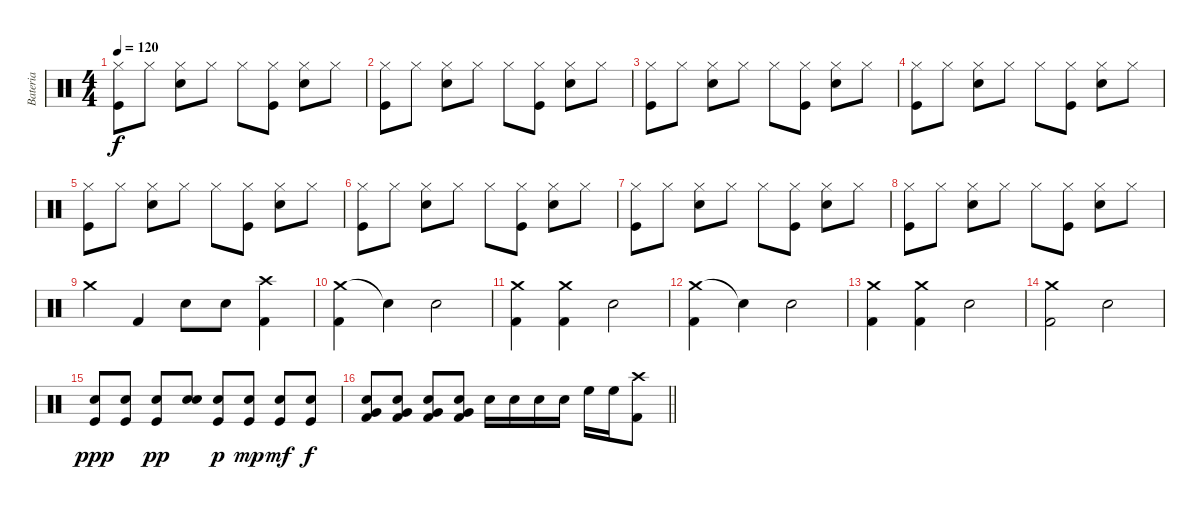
\track ("Bateria" "Bateria") {instrument percussion}
\staff {score}
\articulation defaults
\ts (4 4)
\tempo 120
\clef neutral
\ks c
("Hi-Hat (closed)" "Kick (hit)").8{dy f} "Hi-Hat (closed)".8 ("Hi-Hat (closed)" "Snare (hit) 2").8 "Hi-Hat (closed)".8 "Hi-Hat (closed)".8 ("Hi-Hat (closed)" "Kick (hit)").8 ("Hi-Hat (closed)" "Snare (hit) 2").8 "Hi-Hat (closed)".8 |
("Hi-Hat (closed)" "Kick (hit)").8 "Hi-Hat (closed)".8 ("Hi-Hat (closed)" "Snare (hit) 2").8 "Hi-Hat (closed)".8 "Hi-Hat (closed)".8 ("Hi-Hat (closed)" "Kick (hit)").8 ("Hi-Hat (closed)" "Snare (hit) 2").8 "Hi-Hat (closed)".8 |
("Hi-Hat (closed)" "Kick (hit)").8 "Hi-Hat (closed)".8 ("Hi-Hat (closed)" "Snare (hit) 2").8 "Hi-Hat (closed)".8 "Hi-Hat (closed)".8 ("Hi-Hat (closed)" "Kick (hit)").8 ("Hi-Hat (closed)" "Snare (hit) 2").8 "Hi-Hat (closed)".8 |
("Hi-Hat (closed)" "Kick (hit)").8 "Hi-Hat (closed)".8 ("Hi-Hat (closed)" "Snare (hit) 2").8 "Hi-Hat (closed)".8 "Hi-Hat (closed)".8 ("Hi-Hat (closed)" "Kick (hit)").8 ("Hi-Hat (closed)" "Snare (hit) 2").8 "Hi-Hat (closed)".8 |
("Hi-Hat (closed)" "Kick (hit)").8 "Hi-Hat (closed)".8 ("Hi-Hat (closed)" "Snare (hit) 2").8 "Hi-Hat (closed)".8 "Hi-Hat (closed)".8 ("Hi-Hat (closed)" "Kick (hit)").8 ("Hi-Hat (closed)" "Snare (hit) 2").8 "Hi-Hat (closed)".8 |
("Hi-Hat (closed)" "Kick (hit)").8 "Hi-Hat (closed)".8 ("Hi-Hat (closed)" "Snare (hit) 2").8 "Hi-Hat (closed)".8 "Hi-Hat (closed)".8 ("Hi-Hat (closed)" "Kick (hit)").8 ("Hi-Hat (closed)" "Snare (hit) 2").8 "Hi-Hat (closed)".8 |
("Hi-Hat (closed)" "Kick (hit)").8 "Hi-Hat (closed)".8 ("Hi-Hat (closed)" "Snare (hit) 2").8 "Hi-Hat (closed)".8 "Hi-Hat (closed)".8 ("Hi-Hat (closed)" "Kick (hit)").8 ("Hi-Hat (closed)" "Snare (hit) 2").8 "Hi-Hat (closed)".8 |
("Hi-Hat (closed)" "Kick (hit)").8 "Hi-Hat (closed)".8 ("Hi-Hat (closed)" "Snare (hit) 2").8 "Hi-Hat (closed)".8 "Hi-Hat (closed)".8 ("Hi-Hat (closed)" "Kick (hit)").8 ("Hi-Hat (closed)" "Snare (hit) 2").8 "Hi-Hat (closed)".8 |
"Crash medium (hit)".4 "Kick (hit) 2".4 "Snare (hit) 2".8 "Snare (hit) 2".8 ("Crash high (hit)" "Kick (hit) 2").4 |
("Crash medium (hit)" "Kick (hit) 2").4 "Snare (hit)"{t}.4 "Snare (hit) 2".2 |
("Crash medium (hit)" "Kick (hit) 2").4 ("Crash medium (hit)" "Kick (hit) 2").4 "Snare (hit) 2".2 |
("Crash medium (hit)" "Kick (hit) 2").4 "Snare (hit)"{t}.4 "Snare (hit) 2".2 |
("Crash medium (hit)" "Kick (hit) 2").4 ("Crash medium (hit)" "Kick (hit) 2").4 "Snare (hit) 2".2 |
("Crash medium (hit)" "Kick (hit) 2").2 "Snare (hit) 2".2 |
("Kick (hit)" "Snare (hit) 2").8{dy ppp} ("Snare (hit) 2" "Kick (hit)").8 ("Snare (hit) 2" "Kick (hit)").8{dy pp} ("Snare (hit) 2" "Snare (hit) 2").8 ("Snare (hit) 2" "Kick (hit)").8{dy p} ("Snare (hit) 2" "Kick (hit)").8{dy mp} ("Snare (hit) 2" "Kick (hit)").8{dy mf} ("Snare (hit) 2" "Kick (hit)").8{dy f} |
\barLineRight lightlight
("Snare (hit) 2" "Very Low Tom (hit)" "Kick (hit) 2").8 ("Snare (hit) 2" "Very Low Tom (hit)" "Kick (hit) 2").8 ("Snare (hit) 2" "Very Low Tom (hit)" "Kick (hit) 2").8 ("Snare (hit) 2" "Very Low Tom (hit)" "Kick (hit) 2").8{volume 16} "Snare (hit) 2".16 "Snare (hit) 2".16 "Snare (hit) 2".16 "Snare (hit) 2".16 "High Floor Tom (hit)".16 "High Floor Tom (hit)".16 ("Crash high (hit)" "Kick (hit) 2").8
